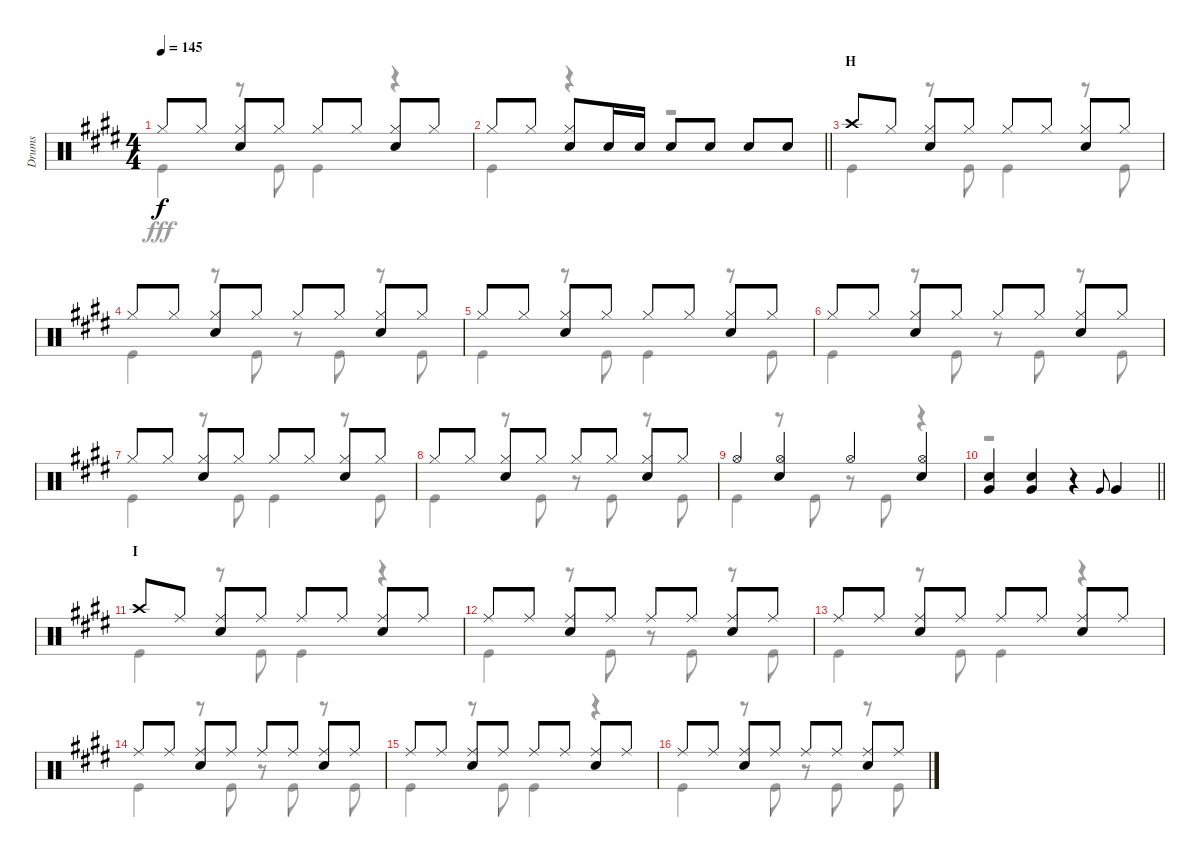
\track ("Drums" "Drums") {instrument percussion}
\staff {score}
\articulation defaults
\voice
\ts (4 4)
\tempo 145
\clef neutral
\ks e "Hi-Hat (closed)".8{dy f} "Hi-Hat (closed)".8
("Hi-Hat (closed)" "Snare (hit) 2").8 "Hi-Hat (closed)".8 "Hi-Hat (closed)".8 "Hi-Hat (closed)".8 ("Hi-Hat (closed)" "Snare (hit) 2").8 "Hi-Hat (closed)".8 |
\barLineRight lightlight "Hi-Hat (closed)".8 "Hi-Hat (closed)".8
("Hi-Hat (closed)" "Snare (hit) 2").8 "Snare (hit) 2".16 "Snare (hit) 2".16 "Snare (hit) 2".8 "Snare (hit) 2".8 "Snare (hit) 2".8 "Snare (hit) 2".8 |
\section ("" "H")
"Crash high (hit)".8 "Hi-Hat (closed)".8 ("Hi-Hat (closed)" "Snare (hit) 2").8 "Hi-Hat (closed)".8 "Hi-Hat (closed)".8 "Hi-Hat (closed)".8 ("Hi-Hat (closed)" "Snare (hit) 2").8 "Hi-Hat (closed)".8 |
"Hi-Hat (closed)".8 "Hi-Hat (closed)".8 ("Hi-Hat (closed)" "Snare (hit) 2").8 "Hi-Hat (closed)".8 "Hi-Hat (closed)".8 "Hi-Hat (closed)".8 ("Hi-Hat (closed)" "Snare (hit) 2").8 "Hi-Hat (closed)".8 |
"Hi-Hat (closed)".8 "Hi-Hat (closed)".8 ("Hi-Hat (closed)" "Snare (hit) 2").8 "Hi-Hat (closed)".8 "Hi-Hat (closed)".8 "Hi-Hat (closed)".8 ("Hi-Hat (closed)" "Snare (hit) 2").8 "Hi-Hat (closed)".8 |
"Hi-Hat (closed)".8 "Hi-Hat (closed)".8 ("Hi-Hat (closed)" "Snare (hit) 2").8 "Hi-Hat (closed)".8 "Hi-Hat (closed)".8 "Hi-Hat (closed)".8 ("Hi-Hat (closed)" "Snare (hit) 2").8 "Hi-Hat (closed)".8 |
"Hi-Hat (closed)".8 "Hi-Hat (closed)".8 ("Hi-Hat (closed)" "Snare (hit) 2").8 "Hi-Hat (closed)".8 "Hi-Hat (closed)".8 "Hi-Hat (closed)".8 ("Hi-Hat (closed)" "Snare (hit) 2").8 "Hi-Hat (closed)".8 |
"Hi-Hat (closed)".8 "Hi-Hat (closed)".8 ("Hi-Hat (closed)" "Snare (hit) 2").8 "Hi-Hat (closed)".8 "Hi-Hat (closed)".8 "Hi-Hat (closed)".8 ("Hi-Hat (closed)" "Snare (hit) 2").8 "Hi-Hat (closed)".8 |
"Hi-Hat (open)".4 ("Hi-Hat (open)" "Snare (hit) 2").4 "Hi-Hat (open)".4 ("Hi-Hat (open)" "Snare (hit) 2").4 |
\barLineRight lightlight
("Snare (hit) 2" "Very Low Tom (hit)").4 ("Snare (hit) 2" "Very Low Tom (hit)").4 r.4 "Very Low Tom (hit)".8{gr onbeat} "Very Low Tom (hit)".4 |
\section ("" "I")
"Crash high (hit)".8 "Ride (middle)".8 ("Ride (middle)" "Snare (hit) 2").8 "Ride (middle)".8 "Ride (middle)".8 "Ride (middle)".8 ("Ride (middle)" "Snare (hit) 2").8 "Ride (middle)".8 |
"Ride (middle)".8 "Ride (middle)".8 ("Ride (middle)" "Snare (hit) 2").8 "Ride (middle)".8 "Ride (middle)".8 "Ride (middle)".8 ("Ride (middle)" "Snare (hit) 2").8 "Ride (middle)".8 |
"Ride (middle)".8 "Ride (middle)".8 ("Ride (middle)" "Snare (hit) 2").8 "Ride (middle)".8 "Ride (middle)".8 "Ride (middle)".8 ("Ride (middle)" "Snare (hit) 2").8 "Ride (middle)".8 |
"Ride (middle)".8 "Ride (middle)".8 ("Ride (middle)" "Snare (hit) 2").8 "Ride (middle)".8 "Ride (middle)".8 "Ride (middle)".8 ("Ride (middle)" "Snare (hit) 2").8 "Ride (middle)".8 |
"Ride (middle)".8 "Ride (middle)".8 ("Ride (middle)" "Snare (hit) 2").8 "Ride (middle)".8 "Ride (middle)".8 "Ride (middle)".8 ("Ride (middle)" "Snare (hit) 2").8 "Ride (middle)".8 |
"Ride (middle)".8 "Ride (middle)".8 ("Ride (middle)" "Snare (hit) 2").8 "Ride (middle)".8 "Ride (middle)".8 "Ride (middle)".8 ("Ride (middle)" "Snare (hit) 2").8 "Ride (middle)".8
\voice
\clef neutral
\ottava regular
\simile none
\ks e "Kick (hit)".4{dy fff}
r.8 "Kick (hit)".8 "Kick (hit)".4 r.4 |
\barLineRight lightlight "Kick (hit)".4
r.4 r.2 |
"Kick (hit)".4 r.8 "Kick (hit)".8 "Kick (hit)".4 r.8 "Kick (hit)".8 |
"Kick (hit)".4 r.8 "Kick (hit)".8 r.8 "Kick (hit)".8 r.8 "Kick (hit)".8 |
"Kick (hit)".4 r.8 "Kick (hit)".8 "Kick (hit)".4 r.8 "Kick (hit)".8 |
"Kick (hit)".4 r.8 "Kick (hit)".8 r.8 "Kick (hit)".8 r.8 "Kick (hit)".8 |
"Kick (hit)".4 r.8 "Kick (hit)".8 "Kick (hit)".4 r.8 "Kick (hit)".8 |
"Kick (hit)".4 r.8 "Kick (hit)".8 r.8 "Kick (hit)".8 r.8 "Kick (hit)".8 |
"Kick (hit)".4 r.8 "Kick (hit)".8 r.8 "Kick (hit)".8 r.4 |
\barLineRight lightlight
r.1 |
"Kick (hit)".4 r.8 "Kick (hit)".8 "Kick (hit)".4 r.4 |
"Kick (hit)".4 r.8 "Kick (hit)".8 r.8 "Kick (hit)".8 r.8 "Kick (hit)".8 |
"Kick (hit)".4 r.8 "Kick (hit)".8 "Kick (hit)".4 r.4 |
"Kick (hit)".4 r.8 "Kick (hit)".8 r.8 "Kick (hit)".8 r.8 "Kick (hit)".8 |
"Kick (hit)".4 r.8 "Kick (hit)".8 "Kick (hit)".4 r.4 |
"Kick (hit)".4 r.8 "Kick (hit)".8 r.8 "Kick (hit)".8 r.8 "Kick (hit)".8
